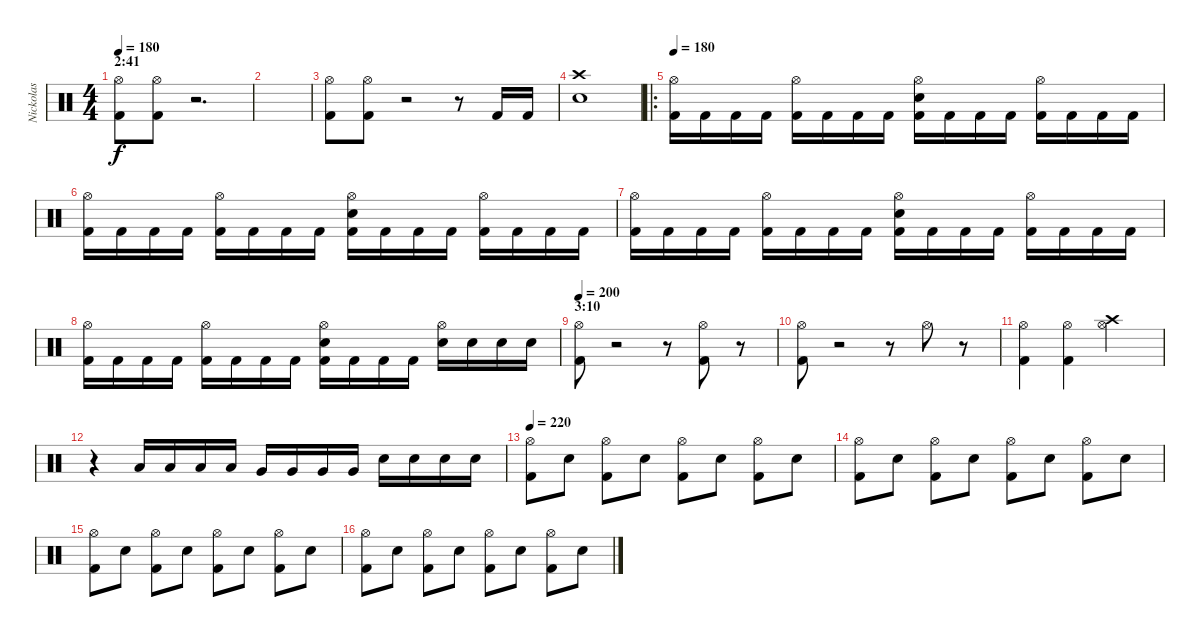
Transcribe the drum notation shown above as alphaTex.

\track ("Nickolas " "Nickolas ") {instrument percussion}
\staff {score}
\articulation defaults
\ts (4 4)
\section ("" "2:41")
\tempo 180
\clef neutral
\ks c
("Hi-Hat (open)" "Kick (hit) 2").8{dy f} ("Hi-Hat (open)" "Kick (hit) 2").8 r.2{d} |
|
("Hi-Hat (open)" "Kick (hit) 2").8 ("Hi-Hat (open)" "Kick (hit) 2").8 r.2 r.8 "Kick (hit) 2".16 "Kick (hit) 2".16 |
("Snare (hit) 2" "Crash high (hit)").1 |
\ro
\tempo 180
("Kick (hit) 2" "Hi-Hat (open)").16 "Kick (hit) 2".16 "Kick (hit) 2".16 "Kick (hit) 2".16 ("Kick (hit) 2" "Hi-Hat (open)").16 "Kick (hit) 2".16 "Kick (hit) 2".16 "Kick (hit) 2".16 ("Kick (hit) 2" "Snare (hit) 2" "Hi-Hat (open)").16 "Kick (hit) 2".16 "Kick (hit) 2".16 "Kick (hit) 2".16 ("Kick (hit) 2" "Hi-Hat (open)").16 "Kick (hit) 2".16 "Kick (hit) 2".16 "Kick (hit) 2".16 |
("Kick (hit) 2" "Hi-Hat (open)").16 "Kick (hit) 2".16 "Kick (hit) 2".16 "Kick (hit) 2".16 ("Kick (hit) 2" "Hi-Hat (open)").16 "Kick (hit) 2".16 "Kick (hit) 2".16 "Kick (hit) 2".16 ("Kick (hit) 2" "Snare (hit) 2" "Hi-Hat (open)").16 "Kick (hit) 2".16 "Kick (hit) 2".16 "Kick (hit) 2".16 ("Kick (hit) 2" "Hi-Hat (open)").16 "Kick (hit) 2".16 "Kick (hit) 2".16 "Kick (hit) 2".16 |
("Kick (hit) 2" "Hi-Hat (open)").16 "Kick (hit) 2".16 "Kick (hit) 2".16 "Kick (hit) 2".16 ("Kick (hit) 2" "Hi-Hat (open)").16 "Kick (hit) 2".16 "Kick (hit) 2".16 "Kick (hit) 2".16 ("Kick (hit) 2" "Snare (hit) 2" "Hi-Hat (open)").16 "Kick (hit) 2".16 "Kick (hit) 2".16 "Kick (hit) 2".16 ("Kick (hit) 2" "Hi-Hat (open)").16 "Kick (hit) 2".16 "Kick (hit) 2".16 "Kick (hit) 2".16 |
("Kick (hit) 2" "Hi-Hat (open)").16 "Kick (hit) 2".16 "Kick (hit) 2".16 "Kick (hit) 2".16 ("Kick (hit) 2" "Hi-Hat (open)").16 "Kick (hit) 2".16 "Kick (hit) 2".16 "Kick (hit) 2".16 ("Kick (hit) 2" "Snare (hit) 2" "Hi-Hat (open)").16 "Kick (hit) 2".16 "Kick (hit) 2".16 "Kick (hit) 2".16 ("Snare (hit) 2" "Hi-Hat (open)").16 "Snare (hit) 2".16 "Snare (hit) 2".16 "Snare (hit) 2".16 |
\section ("" "3:10")
\tempo 200
("Hi-Hat (open)" "Kick (hit) 2").8 r.2 r.8 ("Hi-Hat (open)" "Kick (hit) 2").8 r.8 |
("Hi-Hat (open)" "Kick (hit) 2").8 r.2 r.8 "Hi-Hat (open)".8 r.8 |
("Kick (hit) 2" "Hi-Hat (open)").4 ("Kick (hit) 2" "Hi-Hat (open)").4 ("Crash high (hit)" "Hi-Hat (open)").2 |
r.4 "Low Tom (hit)".16 "Low Tom (hit)".16 "Low Tom (hit)".16 "Low Tom (hit)".16 "Very Low Tom (hit)".16 "Very Low Tom (hit)".16 "Very Low Tom (hit)".16 "Very Low Tom (hit)".16 "Snare (hit) 2".16 "Snare (hit) 2".16 "Snare (hit) 2".16 "Snare (hit) 2".16 |
\tempo 220
("Kick (hit) 2" "Hi-Hat (open)").8 "Snare (hit) 2".8 ("Kick (hit) 2" "Hi-Hat (open)").8 "Snare (hit) 2".8 ("Kick (hit) 2" "Hi-Hat (open)").8 "Snare (hit) 2".8 ("Kick (hit) 2" "Hi-Hat (open)").8 "Snare (hit) 2".8 |
("Kick (hit) 2" "Hi-Hat (open)").8 "Snare (hit) 2".8 ("Kick (hit) 2" "Hi-Hat (open)").8 "Snare (hit) 2".8 ("Kick (hit) 2" "Hi-Hat (open)").8 "Snare (hit) 2".8 ("Kick (hit) 2" "Hi-Hat (open)").8 "Snare (hit) 2".8 |
("Kick (hit) 2" "Hi-Hat (open)").8 "Snare (hit) 2".8 ("Kick (hit) 2" "Hi-Hat (open)").8 "Snare (hit) 2".8 ("Kick (hit) 2" "Hi-Hat (open)").8 "Snare (hit) 2".8 ("Kick (hit) 2" "Hi-Hat (open)").8 "Snare (hit) 2".8 |
("Kick (hit) 2" "Hi-Hat (open)").8 "Snare (hit) 2".8 ("Kick (hit) 2" "Hi-Hat (open)").8 "Snare (hit) 2".8 ("Kick (hit) 2" "Hi-Hat (open)").8 "Snare (hit) 2".8 ("Kick (hit) 2" "Hi-Hat (open)").8 "Snare (hit) 2".8
